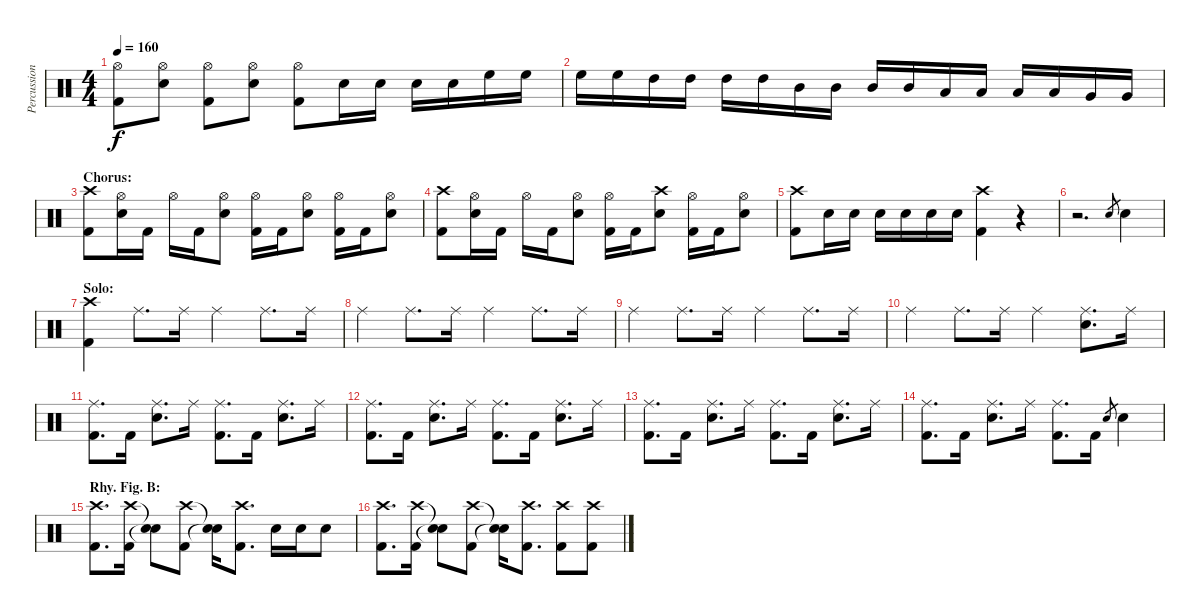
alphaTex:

\track ("Percussion" "Percussion") {instrument percussion}
\staff {score}
\articulation defaults
\ts (4 4)
\tempo 160
\clef neutral
\ks c
("Hi-Hat (open)" "Kick (hit) 2").8{dy f} ("Hi-Hat (open)" "Snare (hit) 2").8 ("Hi-Hat (open)" "Kick (hit) 2").8 ("Hi-Hat (open)" "Snare (hit) 2").8 ("Hi-Hat (open)" "Kick (hit) 2").8 "Snare (hit) 2".16 "Snare (hit) 2".16 "Snare (hit) 2".16 "Snare (hit) 2".16 "High Floor Tom (hit)".16 "High Floor Tom (hit)".16 |
"High Floor Tom (hit)".16 "High Floor Tom (hit)".16 "High Tom (hit)".16 "High Tom (hit)".16 "High Tom (hit)".16 "High Tom (hit)".16 "Mid Tom (hit)".16 "Mid Tom (hit)".16 "Mid Tom (hit)".16 "Mid Tom (hit)".16 "Low Tom (hit)".16 "Low Tom (hit)".16 "Low Tom (hit)".16 "Low Tom (hit)".16 "Very Low Tom (hit)".16 "Very Low Tom (hit)".16 |
\section ("" "Chorus:")
("Crash high (hit)" "Kick (hit) 2").8 ("Hi-Hat (open)" "Snare (hit) 2").16 "Kick (hit) 2".16 "Hi-Hat (open)".16 "Kick (hit) 2".16 ("Hi-Hat (open)" "Snare (hit) 2").8 ("Hi-Hat (open)" "Kick (hit) 2").16 "Kick (hit) 2".16 ("Hi-Hat (open)" "Snare (hit) 2").8 ("Hi-Hat (open)" "Kick (hit) 2").16 "Kick (hit) 2".16 ("Hi-Hat (open)" "Snare (hit) 2").8 |
("Crash high (hit)" "Kick (hit) 2").8 ("Hi-Hat (open)" "Snare (hit) 2").16 "Kick (hit) 2".16 "Hi-Hat (open)".16 "Kick (hit) 2".16 ("Hi-Hat (open)" "Snare (hit) 2").8 ("Hi-Hat (open)" "Kick (hit) 2").16 "Kick (hit) 2".16 ("Crash high (hit)" "Snare (hit) 2").8 ("Hi-Hat (open)" "Kick (hit) 2").16 "Kick (hit) 2".16 ("Hi-Hat (open)" "Snare (hit) 2").8 |
("Crash high (hit)" "Kick (hit) 2").8 "Snare (hit) 2".16 "Snare (hit) 2".16 "Snare (hit) 2".16 "Snare (hit) 2".16 "Snare (hit) 2".16 "Snare (hit) 2".16 ("Crash high (hit)" "Kick (hit) 2").4 r.4 |
r.2{d} "Snare (hit) 2".8{gr} "Snare (hit) 2".4 |
\section ("" "Solo:")
("Crash high (hit)" "Kick (hit) 2").4 "Ride (middle)".8{d} "Ride (middle)".16 "Ride (middle)".4 "Ride (middle)".8{d} "Ride (middle)".16 |
"Ride (middle)".4 "Ride (middle)".8{d} "Ride (middle)".16 "Ride (middle)".4 "Ride (middle)".8{d} "Ride (middle)".16 |
"Ride (middle)".4 "Ride (middle)".8{d} "Ride (middle)".16 "Ride (middle)".4 "Ride (middle)".8{d} "Ride (middle)".16 |
"Ride (middle)".4 "Ride (middle)".8{d} "Ride (middle)".16 "Ride (middle)".4 ("Ride (middle)" "Snare (hit) 2").8{d} "Ride (middle)".16 |
("Ride (middle)" "Kick (hit) 2").8{d} "Kick (hit) 2".16 ("Ride (middle)" "Snare (hit) 2").8{d} "Ride (middle)".16 ("Ride (middle)" "Kick (hit) 2").8{d} "Kick (hit) 2".16 ("Ride (middle)" "Snare (hit) 2").8{d} "Ride (middle)".16 |
("Ride (middle)" "Kick (hit) 2").8{d} "Kick (hit) 2".16 ("Ride (middle)" "Snare (hit) 2").8{d} "Ride (middle)".16 ("Ride (middle)" "Kick (hit) 2").8{d} "Kick (hit) 2".16 ("Ride (middle)" "Snare (hit) 2").8{d} "Ride (middle)".16 |
("Ride (middle)" "Kick (hit) 2").8{d} "Kick (hit) 2".16 ("Ride (middle)" "Snare (hit) 2").8{d} "Ride (middle)".16 ("Ride (middle)" "Kick (hit) 2").8{d} "Kick (hit) 2".16 ("Ride (middle)" "Snare (hit) 2").8{d} "Ride (middle)".16 |
("Ride (middle)" "Kick (hit) 2").8{d} "Kick (hit) 2".16 ("Ride (middle)" "Snare (hit) 2").8{d} "Ride (middle)".16 ("Ride (middle)" "Kick (hit) 2").8{d} "Kick (hit) 2".16 "Snare (hit) 2".8{gr} "Snare (hit) 2".4 |
\section ("" "Rhy. Fig. B:")
("Crash high (hit)" "Kick (hit) 2").8{d} ("Crash high (hit)" "Kick (hit) 2").16 ("Snare (hit)"{t} "Snare (hit)"{t}).8 ("Crash high (hit)" "Kick (hit) 2").8 ("Snare (hit)"{t} "Snare (hit)"{t}).16 ("Crash high (hit)" "Kick (hit) 2").8{d} "Snare (hit) 2".16 "Snare (hit) 2".16 "Snare (hit) 2".8 |
("Crash high (hit)" "Kick (hit) 2").8{d} ("Crash high (hit)" "Kick (hit) 2").16 ("Snare (hit)"{t} "Snare (hit)"{t}).8 ("Crash high (hit)" "Kick (hit) 2").8 ("Snare (hit)"{t} "Snare (hit)"{t}).16 ("Crash high (hit)" "Kick (hit) 2").8{d} ("Crash high (hit)" "Kick (hit) 2").8 ("Crash high (hit)" "Kick (hit) 2").8
